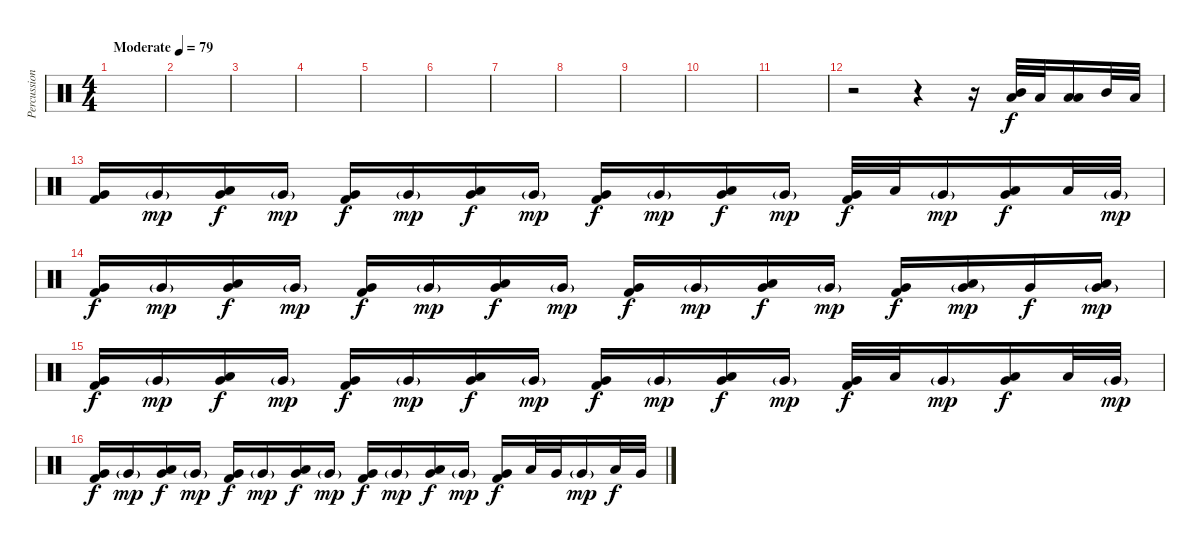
\track ("Percussion" "Percussion") {instrument percussion}
\staff {score}
\articulation defaults
\ts (4 4)
\tempo (79 "Moderate")
\clef neutral
\ks c
|
|
|
|
|
|
|
|
|
|
|
r.2 r.4 r.16 ("Mid Tom (hit)" "Low Tom (hit)").32 "Low Tom (hit)".32 ("Low Tom (hit)" "Low Tom (hit)").16 "Mid Tom (hit)".32 "Low Tom (hit)".32 |
("Very Low Tom (hit)" "Kick (hit) 2").16 "Very Low Tom (hit)"{g}.16{dy mp} ("Low Tom (hit)" "Very Low Tom (hit)").16{dy f} "Very Low Tom (hit)"{g}.16{dy mp} ("Very Low Tom (hit)" "Kick (hit) 2").16{dy f} "Very Low Tom (hit)"{g}.16{dy mp} ("Low Tom (hit)" "Very Low Tom (hit)").16{dy f} "Very Low Tom (hit)"{g}.16{dy mp} ("Very Low Tom (hit)" "Kick (hit) 2").16{dy f} "Very Low Tom (hit)"{g}.16{dy mp} ("Low Tom (hit)" "Very Low Tom (hit)").16{dy f} "Very Low Tom (hit)"{g}.16{dy mp} ("Very Low Tom (hit)" "Kick (hit) 2").32{dy f} "Low Tom (hit)".32 "Very Low Tom (hit)"{g}.16{dy mp} ("Low Tom (hit)" "Very Low Tom (hit)").16{dy f} "Low Tom (hit)".32 "Very Low Tom (hit)"{g}.32{dy mp} |
("Very Low Tom (hit)" "Kick (hit) 2").16{dy f} "Very Low Tom (hit)"{g}.16{dy mp} ("Low Tom (hit)" "Very Low Tom (hit)").16{dy f} "Very Low Tom (hit)"{g}.16{dy mp} ("Very Low Tom (hit)" "Kick (hit) 2").16{dy f} "Very Low Tom (hit)"{g}.16{dy mp} ("Low Tom (hit)" "Very Low Tom (hit)").16{dy f} "Very Low Tom (hit)"{g}.16{dy mp} ("Very Low Tom (hit)" "Kick (hit) 2").16{dy f} "Very Low Tom (hit)"{g}.16{dy mp} ("Low Tom (hit)" "Very Low Tom (hit)").16{dy f} "Very Low Tom (hit)"{g}.16{dy mp} ("Very Low Tom (hit)" "Kick (hit) 2").16{dy f} ("Low Tom (hit)" "Very Low Tom (hit)"{g}).16{dy mp} "Very Low Tom (hit)".16{dy f} ("Low Tom (hit)" "Very Low Tom (hit)"{g}).16{dy mp} |
("Very Low Tom (hit)" "Kick (hit) 2").16{dy f} "Very Low Tom (hit)"{g}.16{dy mp} ("Low Tom (hit)" "Very Low Tom (hit)").16{dy f} "Very Low Tom (hit)"{g}.16{dy mp} ("Very Low Tom (hit)" "Kick (hit) 2").16{dy f} "Very Low Tom (hit)"{g}.16{dy mp} ("Low Tom (hit)" "Very Low Tom (hit)").16{dy f} "Very Low Tom (hit)"{g}.16{dy mp} ("Very Low Tom (hit)" "Kick (hit) 2").16{dy f} "Very Low Tom (hit)"{g}.16{dy mp} ("Low Tom (hit)" "Very Low Tom (hit)").16{dy f} "Very Low Tom (hit)"{g}.16{dy mp} ("Very Low Tom (hit)" "Kick (hit) 2").32{dy f} "Low Tom (hit)".32 "Very Low Tom (hit)"{g}.16{dy mp} ("Low Tom (hit)" "Very Low Tom (hit)").16{dy f} "Low Tom (hit)".32 "Very Low Tom (hit)"{g}.32{dy mp} |
("Very Low Tom (hit)" "Kick (hit) 2").16{dy f} "Very Low Tom (hit)"{g}.16{dy mp} ("Low Tom (hit)" "Very Low Tom (hit)").16{dy f} "Very Low Tom (hit)"{g}.16{dy mp} ("Very Low Tom (hit)" "Kick (hit) 2").16{dy f} "Very Low Tom (hit)"{g}.16{dy mp} ("Low Tom (hit)" "Very Low Tom (hit)").16{dy f} "Very Low Tom (hit)"{g}.16{dy mp} ("Very Low Tom (hit)" "Kick (hit) 2").16{dy f} "Very Low Tom (hit)"{g}.16{dy mp} ("Low Tom (hit)" "Very Low Tom (hit)").16{dy f} "Very Low Tom (hit)"{g}.16{dy mp} ("Very Low Tom (hit)" "Kick (hit) 2").16{dy f} "Low Tom (hit)".32 "Very Low Tom (hit)".32 "Very Low Tom (hit)"{g}.16{dy mp} "Low Tom (hit)".32{dy f} "Very Low Tom (hit)".32
